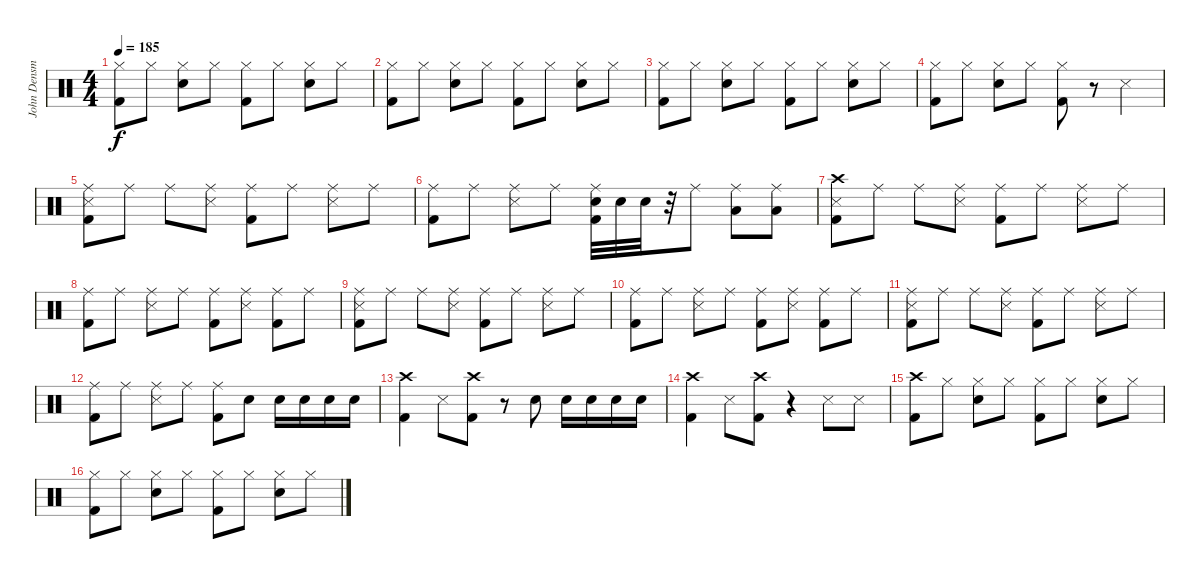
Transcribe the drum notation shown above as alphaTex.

\track ("John Densmore - Drums" "John Densm") {instrument percussion}
\staff {score}
\articulation defaults
\ts (4 4)
\tempo 185
\clef neutral
\ks c
("Hi-Hat (closed)" "Kick (hit) 2").8{dy f} "Hi-Hat (closed)".8 ("Hi-Hat (closed)" "Snare (hit) 2").8 "Hi-Hat (closed)".8 ("Hi-Hat (closed)" "Kick (hit) 2").8 "Hi-Hat (closed)".8 ("Hi-Hat (closed)" "Snare (hit) 2").8 "Hi-Hat (closed)".8 |
("Hi-Hat (closed)" "Kick (hit) 2").8 "Hi-Hat (closed)".8 ("Hi-Hat (closed)" "Snare (hit) 2").8 "Hi-Hat (closed)".8 ("Hi-Hat (closed)" "Kick (hit) 2").8 "Hi-Hat (closed)".8 ("Hi-Hat (closed)" "Snare (hit) 2").8 "Hi-Hat (closed)".8 |
("Hi-Hat (closed)" "Kick (hit) 2").8 "Hi-Hat (closed)".8 ("Hi-Hat (closed)" "Snare (hit) 2").8 "Hi-Hat (closed)".8 ("Hi-Hat (closed)" "Kick (hit) 2").8 "Hi-Hat (closed)".8 ("Hi-Hat (closed)" "Snare (hit) 2").8 "Hi-Hat (closed)".8 |
("Hi-Hat (closed)" "Kick (hit) 2").8 "Hi-Hat (closed)".8 ("Hi-Hat (closed)" "Snare (hit) 2").8 "Hi-Hat (closed)".8 ("Hi-Hat (closed)" "Kick (hit) 2").8 r.8 "Snare (side stick) 3".4 |
("Ride (middle)" "Snare (side stick) 3" "Kick (hit) 2").8 "Ride (middle)".8 "Ride (middle)".8 ("Ride (middle)" "Snare (side stick) 3").8 ("Ride (middle)" "Kick (hit) 2").8 "Ride (middle)".8 ("Ride (middle)" "Snare (side stick) 3").8 "Ride (middle)".8 |
("Ride (middle)" "Kick (hit) 2").8 "Ride (middle)".8 ("Ride (middle)" "Snare (side stick) 3").8 "Ride (middle)".8 ("Ride (middle)" "Snare (hit) 2" "Kick (hit) 2").32 "Snare (hit) 2".32 "Snare (hit) 2".32 r.32 "Ride (middle)".8 ("Ride (middle)" "Low Floor Tom (hit)").8 ("Ride (middle)" "Low Floor Tom (hit)").8 |
("Crash high (hit)" "Snare (side stick) 3" "Kick (hit) 2").8 "Ride (middle)".8 "Ride (middle)".8 ("Ride (middle)" "Snare (side stick) 3").8 ("Ride (middle)" "Kick (hit) 2").8 "Ride (middle)".8 ("Ride (middle)" "Snare (side stick) 3").8 "Ride (middle)".8 |
("Ride (middle)" "Kick (hit) 2").8 "Ride (middle)".8 ("Ride (middle)" "Snare (side stick) 3").8 "Ride (middle)".8 ("Ride (middle)" "Kick (hit) 2").8 ("Ride (middle)" "Snare (side stick) 3").8 ("Ride (middle)" "Kick (hit) 2").8 "Ride (middle)".8 |
("Ride (middle)" "Snare (side stick) 3" "Kick (hit) 2").8 "Ride (middle)".8 "Ride (middle)".8 ("Ride (middle)" "Snare (side stick) 3").8 ("Ride (middle)" "Kick (hit) 2").8 "Ride (middle)".8 ("Ride (middle)" "Snare (side stick) 3").8 "Ride (middle)".8 |
("Ride (middle)" "Kick (hit) 2").8 "Ride (middle)".8 ("Ride (middle)" "Snare (side stick) 3").8 "Ride (middle)".8 ("Ride (middle)" "Kick (hit) 2").8 ("Ride (middle)" "Snare (side stick) 3").8 ("Ride (middle)" "Kick (hit) 2").8 "Ride (middle)".8 |
("Ride (middle)" "Snare (side stick) 3" "Kick (hit) 2").8 "Ride (middle)".8 "Ride (middle)".8 ("Ride (middle)" "Snare (side stick) 3").8 ("Ride (middle)" "Kick (hit) 2").8 "Ride (middle)".8 ("Ride (middle)" "Snare (side stick) 3").8 "Ride (middle)".8 |
("Ride (middle)" "Kick (hit) 2").8 "Ride (middle)".8 ("Ride (middle)" "Snare (side stick) 3").8 "Ride (middle)".8 ("Ride (middle)" "Kick (hit) 2").8 "Snare (hit) 2".8 "Snare (hit) 2".16 "Snare (hit) 2".16 "Snare (hit) 2".16 "Snare (hit) 2".16 |
("Crash high (hit)" "Kick (hit) 2").4 "Snare (side stick) 3".8 ("Crash high (hit)" "Kick (hit) 2").8 r.8 "Snare (hit) 2".8 "Snare (hit) 2".16 "Snare (hit) 2".16 "Snare (hit) 2".16 "Snare (hit) 2".16 |
("Crash high (hit)" "Kick (hit) 2").4 "Snare (side stick) 3".8 ("Crash high (hit)" "Kick (hit) 2").8 r.4 "Snare (side stick) 3".8 "Snare (side stick) 3".8 |
("Crash high (hit)" "Kick (hit) 2").8 "Hi-Hat (closed)".8 ("Hi-Hat (closed)" "Snare (hit) 2").8 "Hi-Hat (closed)".8 ("Hi-Hat (closed)" "Kick (hit) 2").8 "Hi-Hat (closed)".8 ("Hi-Hat (closed)" "Snare (hit) 2").8 "Hi-Hat (closed)".8 |
("Hi-Hat (closed)" "Kick (hit) 2").8 "Hi-Hat (closed)".8 ("Hi-Hat (closed)" "Snare (hit) 2").8 "Hi-Hat (closed)".8 ("Hi-Hat (closed)" "Kick (hit) 2").8 "Hi-Hat (closed)".8 ("Hi-Hat (closed)" "Snare (hit) 2").8 "Hi-Hat (closed)".8
